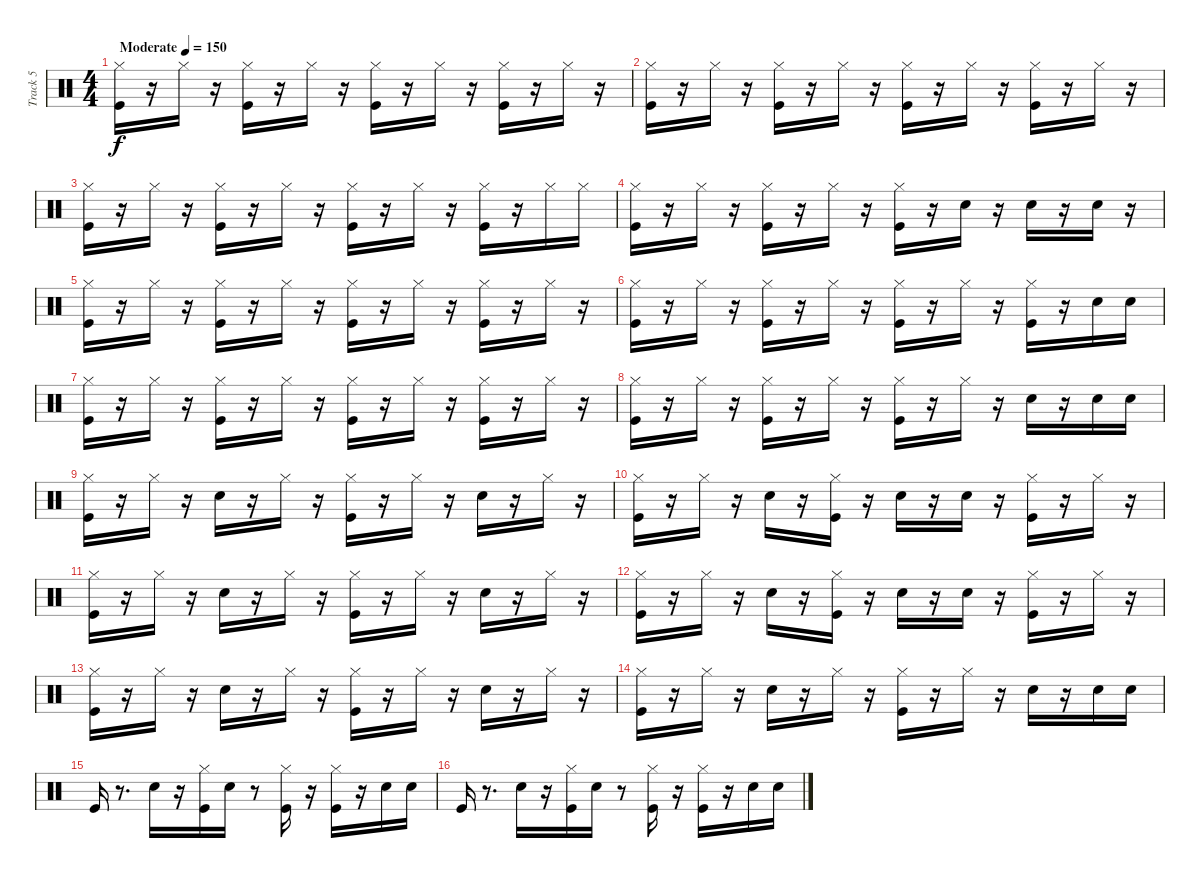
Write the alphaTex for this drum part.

\track ("Track 5" "Track 5") {instrument percussion}
\staff {score}
\articulation defaults
\ts (4 4)
\tempo (150 "Moderate")
\clef neutral
\ks c
("Kick (hit)" "Hi-Hat (closed)").16{dy f} r.16 "Hi-Hat (closed)".16 r.16 ("Kick (hit)" "Hi-Hat (closed)").16 r.16 "Hi-Hat (closed)".16 r.16 ("Kick (hit)" "Hi-Hat (closed)").16 r.16 "Hi-Hat (closed)".16 r.16 ("Kick (hit)" "Hi-Hat (closed)").16 r.16 "Hi-Hat (closed)".16 r.16 |
("Kick (hit)" "Hi-Hat (closed)").16 r.16 "Hi-Hat (closed)".16 r.16 ("Kick (hit)" "Hi-Hat (closed)").16 r.16 "Hi-Hat (closed)".16 r.16 ("Kick (hit)" "Hi-Hat (closed)").16 r.16 "Hi-Hat (closed)".16 r.16 ("Kick (hit)" "Hi-Hat (closed)").16 r.16 "Hi-Hat (closed)".16 r.16 |
("Kick (hit)" "Hi-Hat (closed)").16 r.16 "Hi-Hat (closed)".16 r.16 ("Kick (hit)" "Hi-Hat (closed)").16 r.16 "Hi-Hat (closed)".16 r.16 ("Kick (hit)" "Hi-Hat (closed)").16 r.16 "Hi-Hat (closed)".16 r.16 ("Kick (hit)" "Hi-Hat (closed)").16 r.16 "Hi-Hat (closed)".16 "Hi-Hat (closed)".16 |
("Kick (hit)" "Hi-Hat (closed)").16 r.16 "Hi-Hat (closed)".16 r.16 ("Kick (hit)" "Hi-Hat (closed)").16 r.16 "Hi-Hat (closed)".16 r.16 ("Kick (hit)" "Hi-Hat (closed)").16 r.16 "Snare (hit) 2".16 r.16 "Snare (hit) 2".16 r.16 "Snare (hit) 2".16 r.16 |
("Kick (hit)" "Hi-Hat (closed)").16 r.16 "Hi-Hat (closed)".16 r.16 ("Kick (hit)" "Hi-Hat (closed)").16 r.16 "Hi-Hat (closed)".16 r.16 ("Kick (hit)" "Hi-Hat (closed)").16 r.16 "Hi-Hat (closed)".16 r.16 ("Kick (hit)" "Hi-Hat (closed)").16 r.16 "Hi-Hat (closed)".16 r.16 |
("Kick (hit)" "Hi-Hat (closed)").16 r.16 "Hi-Hat (closed)".16 r.16 ("Kick (hit)" "Hi-Hat (closed)").16 r.16 "Hi-Hat (closed)".16 r.16 ("Kick (hit)" "Hi-Hat (closed)").16 r.16 "Hi-Hat (closed)".16 r.16 ("Kick (hit)" "Hi-Hat (closed)").16 r.16 "Snare (hit) 2".16 "Snare (hit) 2".16 |
("Kick (hit)" "Hi-Hat (closed)").16 r.16 "Hi-Hat (closed)".16 r.16 ("Kick (hit)" "Hi-Hat (closed)").16 r.16 "Hi-Hat (closed)".16 r.16 ("Kick (hit)" "Hi-Hat (closed)").16 r.16 "Hi-Hat (closed)".16 r.16 ("Kick (hit)" "Hi-Hat (closed)").16 r.16 "Hi-Hat (closed)".16 r.16 |
("Kick (hit)" "Hi-Hat (closed)").16 r.16 "Hi-Hat (closed)".16 r.16 ("Kick (hit)" "Hi-Hat (closed)").16 r.16 "Hi-Hat (closed)".16 r.16 ("Kick (hit)" "Hi-Hat (closed)").16 r.16 "Hi-Hat (closed)".16 r.16 "Snare (hit) 2".16 r.16 "Snare (hit) 2".16 "Snare (hit) 2".16 |
("Kick (hit)" "Hi-Hat (closed)").16 r.16 "Hi-Hat (closed)".16 r.16 "Snare (hit) 2".16 r.16 "Hi-Hat (closed)".16 r.16 ("Kick (hit)" "Hi-Hat (closed)").16 r.16 "Hi-Hat (closed)".16 r.16 "Snare (hit) 2".16 r.16 "Hi-Hat (closed)".16 r.16 |
("Kick (hit)" "Hi-Hat (closed)").16 r.16 "Hi-Hat (closed)".16 r.16 "Snare (hit) 2".16 r.16 ("Kick (hit)" "Hi-Hat (closed)").16 r.16 "Snare (hit) 2".16 r.16 "Snare (hit) 2".16 r.16 ("Kick (hit)" "Hi-Hat (closed)").16 r.16 "Hi-Hat (closed)".16 r.16 |
("Kick (hit)" "Hi-Hat (closed)").16 r.16 "Hi-Hat (closed)".16 r.16 "Snare (hit) 2".16 r.16 "Hi-Hat (closed)".16 r.16 ("Kick (hit)" "Hi-Hat (closed)").16 r.16 "Hi-Hat (closed)".16 r.16 "Snare (hit) 2".16 r.16 "Hi-Hat (closed)".16 r.16 |
("Kick (hit)" "Hi-Hat (closed)").16 r.16 "Hi-Hat (closed)".16 r.16 "Snare (hit) 2".16 r.16 ("Kick (hit)" "Hi-Hat (closed)").16 r.16 "Snare (hit) 2".16 r.16 "Snare (hit) 2".16 r.16 ("Kick (hit)" "Hi-Hat (closed)").16 r.16 "Hi-Hat (closed)".16 r.16 |
("Kick (hit)" "Hi-Hat (closed)").16 r.16 "Hi-Hat (closed)".16 r.16 "Snare (hit) 2".16 r.16 "Hi-Hat (closed)".16 r.16 ("Kick (hit)" "Hi-Hat (closed)").16 r.16 "Hi-Hat (closed)".16 r.16 "Snare (hit) 2".16 r.16 "Hi-Hat (closed)".16 r.16 |
("Kick (hit)" "Hi-Hat (closed)").16 r.16 "Hi-Hat (closed)".16 r.16 "Snare (hit) 2".16 r.16 "Hi-Hat (closed)".16 r.16 ("Kick (hit)" "Hi-Hat (closed)").16 r.16 "Hi-Hat (closed)".16 r.16 "Snare (hit) 2".16 r.16 "Snare (hit) 2".16 "Snare (hit) 2".16 |
"Kick (hit)".16 r.8{d} "Snare (hit) 2".16 r.16 ("Kick (hit)" "Hi-Hat (closed)").16 "Snare (hit) 2".16 r.8 ("Kick (hit)" "Hi-Hat (closed)").16 r.16 ("Kick (hit)" "Hi-Hat (closed)").16 r.16 "Snare (hit) 2".16 "Snare (hit) 2".16 |
"Kick (hit)".16 r.8{d} "Snare (hit) 2".16 r.16 ("Kick (hit)" "Hi-Hat (closed)").16 "Snare (hit) 2".16 r.8 ("Kick (hit)" "Hi-Hat (closed)").16 r.16 ("Kick (hit)" "Hi-Hat (closed)").16 r.16 "Snare (hit) 2".16 "Snare (hit) 2".16
